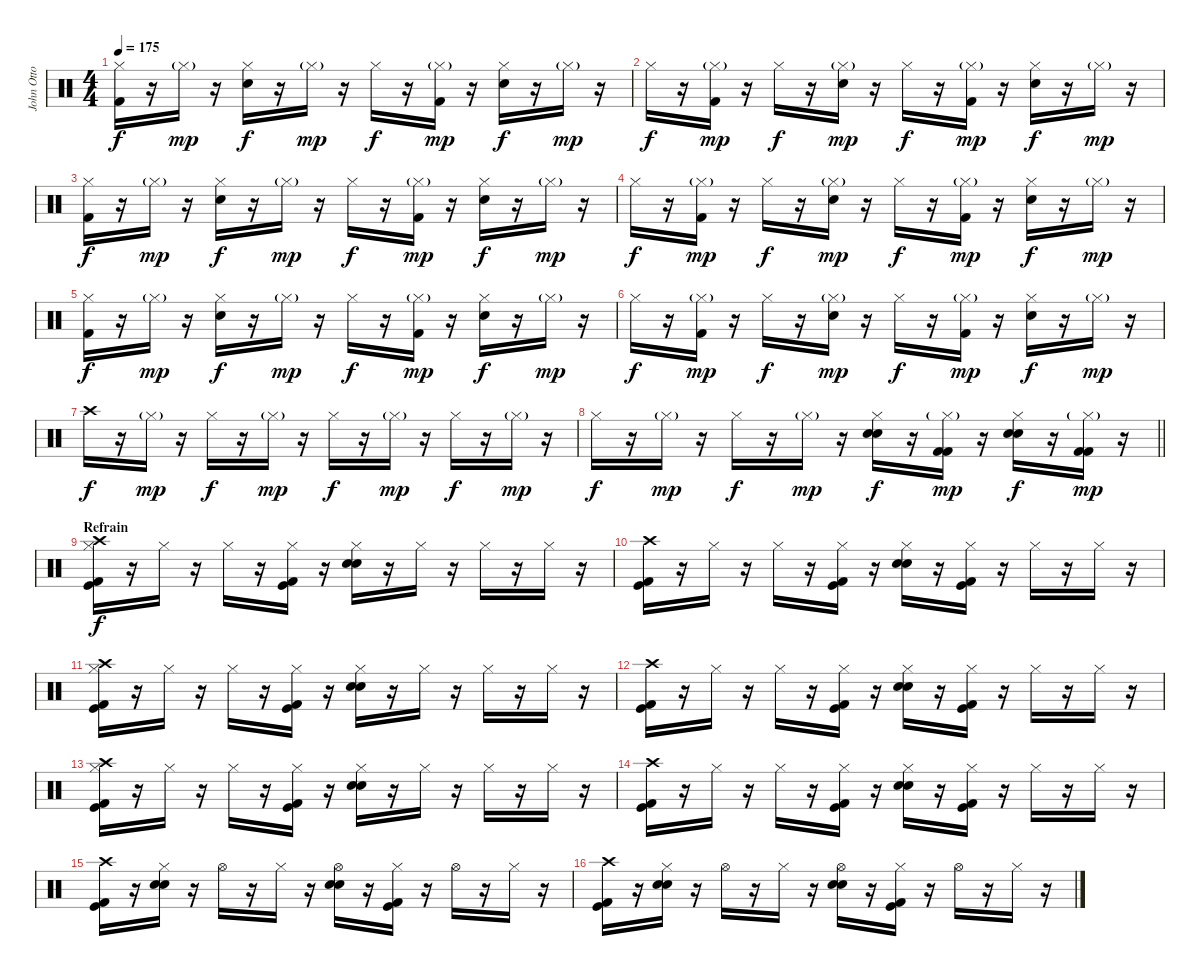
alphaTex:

\track ("John Otto" "John Otto") {instrument percussion}
\staff {score}
\articulation defaults
\ts (4 4)
\tempo 175
\clef neutral
\ks c
("Hi-Hat (closed)" "Kick (hit) 2").16{dy f} r.16 "Hi-Hat (closed)"{g}.16{dy mp} r.16 ("Hi-Hat (closed)" "Snare (hit) 2").16{dy f} r.16 "Hi-Hat (closed)"{g}.16{dy mp} r.16 "Hi-Hat (closed)".16{dy f} r.16 ("Hi-Hat (closed)"{g} "Kick (hit) 2").16{dy mp} r.16 ("Hi-Hat (closed)" "Snare (hit) 2").16{dy f} r.16 "Hi-Hat (closed)"{g}.16{dy mp} r.16 |
"Hi-Hat (closed)".16{dy f} r.16 ("Hi-Hat (closed)"{g} "Kick (hit) 2").16{dy mp} r.16 "Hi-Hat (closed)".16{dy f} r.16 ("Hi-Hat (closed)"{g} "Snare (hit) 2").16{dy mp} r.16 "Hi-Hat (closed)".16{dy f} r.16 ("Hi-Hat (closed)"{g} "Kick (hit) 2").16{dy mp} r.16 ("Hi-Hat (closed)" "Snare (hit) 2").16{dy f} r.16 "Hi-Hat (closed)"{g}.16{dy mp} r.16 |
("Hi-Hat (closed)" "Kick (hit) 2").16{dy f} r.16 "Hi-Hat (closed)"{g}.16{dy mp} r.16 ("Hi-Hat (closed)" "Snare (hit) 2").16{dy f} r.16 "Hi-Hat (closed)"{g}.16{dy mp} r.16 "Hi-Hat (closed)".16{dy f} r.16 ("Hi-Hat (closed)"{g} "Kick (hit) 2").16{dy mp} r.16 ("Hi-Hat (closed)" "Snare (hit) 2").16{dy f} r.16 "Hi-Hat (closed)"{g}.16{dy mp} r.16 |
"Hi-Hat (closed)".16{dy f} r.16 ("Hi-Hat (closed)"{g} "Kick (hit) 2").16{dy mp} r.16 "Hi-Hat (closed)".16{dy f} r.16 ("Hi-Hat (closed)"{g} "Snare (hit) 2").16{dy mp} r.16 "Hi-Hat (closed)".16{dy f} r.16 ("Hi-Hat (closed)"{g} "Kick (hit) 2").16{dy mp} r.16 ("Hi-Hat (closed)" "Snare (hit) 2").16{dy f} r.16 "Hi-Hat (closed)"{g}.16{dy mp} r.16 |
("Hi-Hat (closed)" "Kick (hit) 2").16{dy f} r.16 "Hi-Hat (closed)"{g}.16{dy mp} r.16 ("Hi-Hat (closed)" "Snare (hit) 2").16{dy f} r.16 "Hi-Hat (closed)"{g}.16{dy mp} r.16 "Hi-Hat (closed)".16{dy f} r.16 ("Hi-Hat (closed)"{g} "Kick (hit) 2").16{dy mp} r.16 ("Hi-Hat (closed)" "Snare (hit) 2").16{dy f} r.16 "Hi-Hat (closed)"{g}.16{dy mp} r.16 |
"Hi-Hat (closed)".16{dy f} r.16 ("Hi-Hat (closed)"{g} "Kick (hit) 2").16{dy mp} r.16 "Hi-Hat (closed)".16{dy f} r.16 ("Hi-Hat (closed)"{g} "Snare (hit) 2").16{dy mp} r.16 "Hi-Hat (closed)".16{dy f} r.16 ("Hi-Hat (closed)"{g} "Kick (hit) 2").16{dy mp} r.16 ("Hi-Hat (closed)" "Snare (hit) 2").16{dy f} r.16 "Hi-Hat (closed)"{g}.16{dy mp} r.16 |
"Crash high (hit)".16{dy f} r.16 "Hi-Hat (closed)"{g}.16{dy mp} r.16 "Hi-Hat (closed)".16{dy f} r.16 "Hi-Hat (closed)"{g}.16{dy mp} r.16 "Hi-Hat (closed)".16{dy f} r.16 "Hi-Hat (closed)"{g}.16{dy mp} r.16 "Hi-Hat (closed)".16{dy f} r.16 "Hi-Hat (closed)"{g}.16{dy mp} r.16 |
\barLineRight lightlight "Hi-Hat (closed)".16{dy f}
r.16 "Hi-Hat (closed)"{g}.16{dy mp} r.16 "Hi-Hat (closed)".16{dy f} r.16 "Hi-Hat (closed)"{g}.16{dy mp} r.16 ("Hi-Hat (closed)" "Electric Snare (hit)" "Snare (hit) 2").16{dy f} r.16 ("Hi-Hat (closed)"{g} "Kick (hit) 2" "Kick (hit) 2").16{dy mp} r.16 ("Hi-Hat (closed)" "Electric Snare (hit)" "Snare (hit) 2").16{dy f} r.16 ("Hi-Hat (closed)"{g} "Kick (hit) 2" "Kick (hit) 2").16{dy mp} r.16 |
\section ("" "Refrain")
("Crash high (hit)" "Hi-Hat (closed)" "Kick (hit) 2" "Kick (hit)").16{dy f} r.16 "Hi-Hat (closed)".16 r.16 "Hi-Hat (closed)".16 r.16 ("Hi-Hat (closed)" "Kick (hit) 2" "Kick (hit)").16 r.16 ("Hi-Hat (closed)" "Electric Snare (hit)" "Snare (hit) 2").16 r.16 "Hi-Hat (closed)".16 r.16 "Hi-Hat (closed)".16 r.16 "Hi-Hat (closed)".16 r.16 |
("Crash high (hit)" "Kick (hit) 2" "Kick (hit)").16 r.16 "Hi-Hat (closed)".16 r.16 "Hi-Hat (closed)".16 r.16 ("Hi-Hat (closed)" "Kick (hit) 2" "Kick (hit)").16 r.16 ("Hi-Hat (closed)" "Electric Snare (hit)" "Snare (hit) 2").16 r.16 ("Hi-Hat (closed)" "Kick (hit) 2" "Kick (hit)").16 r.16 "Hi-Hat (closed)".16 r.16 "Hi-Hat (closed)".16 r.16 |
("Crash high (hit)" "Hi-Hat (closed)" "Kick (hit) 2" "Kick (hit)").16 r.16 "Hi-Hat (closed)".16 r.16 "Hi-Hat (closed)".16 r.16 ("Hi-Hat (closed)" "Kick (hit) 2" "Kick (hit)").16 r.16 ("Hi-Hat (closed)" "Electric Snare (hit)" "Snare (hit) 2").16 r.16 "Hi-Hat (closed)".16 r.16 "Hi-Hat (closed)".16 r.16 "Hi-Hat (closed)".16 r.16 |
("Crash high (hit)" "Kick (hit) 2" "Kick (hit)").16 r.16 "Hi-Hat (closed)".16 r.16 "Hi-Hat (closed)".16 r.16 ("Hi-Hat (closed)" "Kick (hit) 2" "Kick (hit)").16 r.16 ("Hi-Hat (closed)" "Electric Snare (hit)" "Snare (hit) 2").16 r.16 ("Hi-Hat (closed)" "Kick (hit) 2" "Kick (hit)").16 r.16 "Hi-Hat (closed)".16 r.16 "Hi-Hat (closed)".16 r.16 |
("Crash high (hit)" "Hi-Hat (closed)" "Kick (hit) 2" "Kick (hit)").16 r.16 "Hi-Hat (closed)".16 r.16 "Hi-Hat (closed)".16 r.16 ("Hi-Hat (closed)" "Kick (hit) 2" "Kick (hit)").16 r.16 ("Hi-Hat (closed)" "Electric Snare (hit)" "Snare (hit) 2").16 r.16 "Hi-Hat (closed)".16 r.16 "Hi-Hat (closed)".16 r.16 "Hi-Hat (closed)".16 r.16 |
("Crash high (hit)" "Kick (hit) 2" "Kick (hit)").16 r.16 "Hi-Hat (closed)".16 r.16 "Hi-Hat (closed)".16 r.16 ("Hi-Hat (closed)" "Kick (hit) 2" "Kick (hit)").16 r.16 ("Hi-Hat (closed)" "Electric Snare (hit)" "Snare (hit) 2").16 r.16 ("Hi-Hat (closed)" "Kick (hit) 2" "Kick (hit)").16 r.16 "Hi-Hat (closed)".16 r.16 "Hi-Hat (closed)".16 r.16 |
("Crash high (hit)" "Kick (hit) 2" "Kick (hit)").16 r.16 ("Hi-Hat (closed)" "Electric Snare (hit)" "Snare (hit) 2").16 r.16 "Hi-Hat (open)".16 r.16 "Hi-Hat (closed)".16 r.16 ("Hi-Hat (open)" "Electric Snare (hit)" "Snare (hit) 2").16 r.16 ("Hi-Hat (closed)" "Kick (hit) 2" "Kick (hit)").16 r.16 "Hi-Hat (open)".16 r.16 "Hi-Hat (closed)".16 r.16 |
("Crash high (hit)" "Kick (hit) 2" "Kick (hit)").16 r.16 ("Hi-Hat (closed)" "Electric Snare (hit)" "Snare (hit) 2").16 r.16 "Hi-Hat (open)".16 r.16 "Hi-Hat (closed)".16 r.16 ("Hi-Hat (open)" "Electric Snare (hit)" "Snare (hit) 2").16 r.16 ("Hi-Hat (closed)" "Kick (hit) 2" "Kick (hit)").16 r.16 "Hi-Hat (open)".16 r.16 "Hi-Hat (closed)".16 r.16
